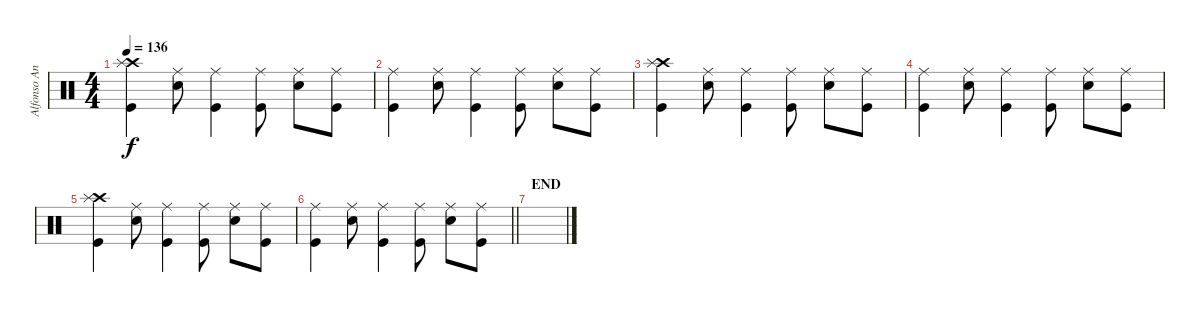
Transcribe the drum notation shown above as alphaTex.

\track ("Alfonso Andre" "Alfonso An") {instrument percussion}
\staff {score}
\articulation defaults
\ts (4 4)
\tempo 136
\clef neutral
\ks c
("Kick (hit)" "Crash high (hit)" "Splash (hit)").4{dy f} ("Snare (hit) 2" "Ride (middle)").8 ("Kick (hit)" "Ride (middle)").4 ("Kick (hit)" "Ride (middle)").8 ("Snare (hit) 2" "Ride (middle)").8 ("Kick (hit)" "Ride (middle)").8 |
("Kick (hit)" "Ride (middle)").4 ("Snare (hit) 2" "Ride (middle)").8 ("Kick (hit)" "Ride (middle)").4 ("Kick (hit)" "Ride (middle)").8 ("Snare (hit) 2" "Ride (middle)").8 ("Kick (hit)" "Ride (middle)").8 |
("Kick (hit)" "Crash high (hit)" "Splash (hit)").4 ("Snare (hit) 2" "Ride (middle)").8 ("Kick (hit)" "Ride (middle)").4 ("Kick (hit)" "Ride (middle)").8 ("Snare (hit) 2" "Ride (middle)").8 ("Kick (hit)" "Ride (middle)").8 |
("Kick (hit)" "Ride (middle)").4 ("Snare (hit) 2" "Ride (middle)").8 ("Kick (hit)" "Ride (middle)").4 ("Kick (hit)" "Ride (middle)").8 ("Snare (hit) 2" "Ride (middle)").8 ("Kick (hit)" "Ride (middle)").8 |
("Kick (hit)" "Crash high (hit)" "Splash (hit)").4 ("Snare (hit) 2" "Ride (middle)").8 ("Kick (hit)" "Ride (middle)").4 ("Kick (hit)" "Ride (middle)").8 ("Snare (hit) 2" "Ride (middle)").8 ("Kick (hit)" "Ride (middle)").8 |
\barLineRight lightlight
("Kick (hit)" "Ride (middle)").4 ("Snare (hit) 2" "Ride (middle)").8 ("Kick (hit)" "Ride (middle)").4 ("Kick (hit)" "Ride (middle)").8 ("Snare (hit) 2" "Ride (middle)").8 ("Kick (hit)" "Ride (middle)").8 |
\section ("" "END")
